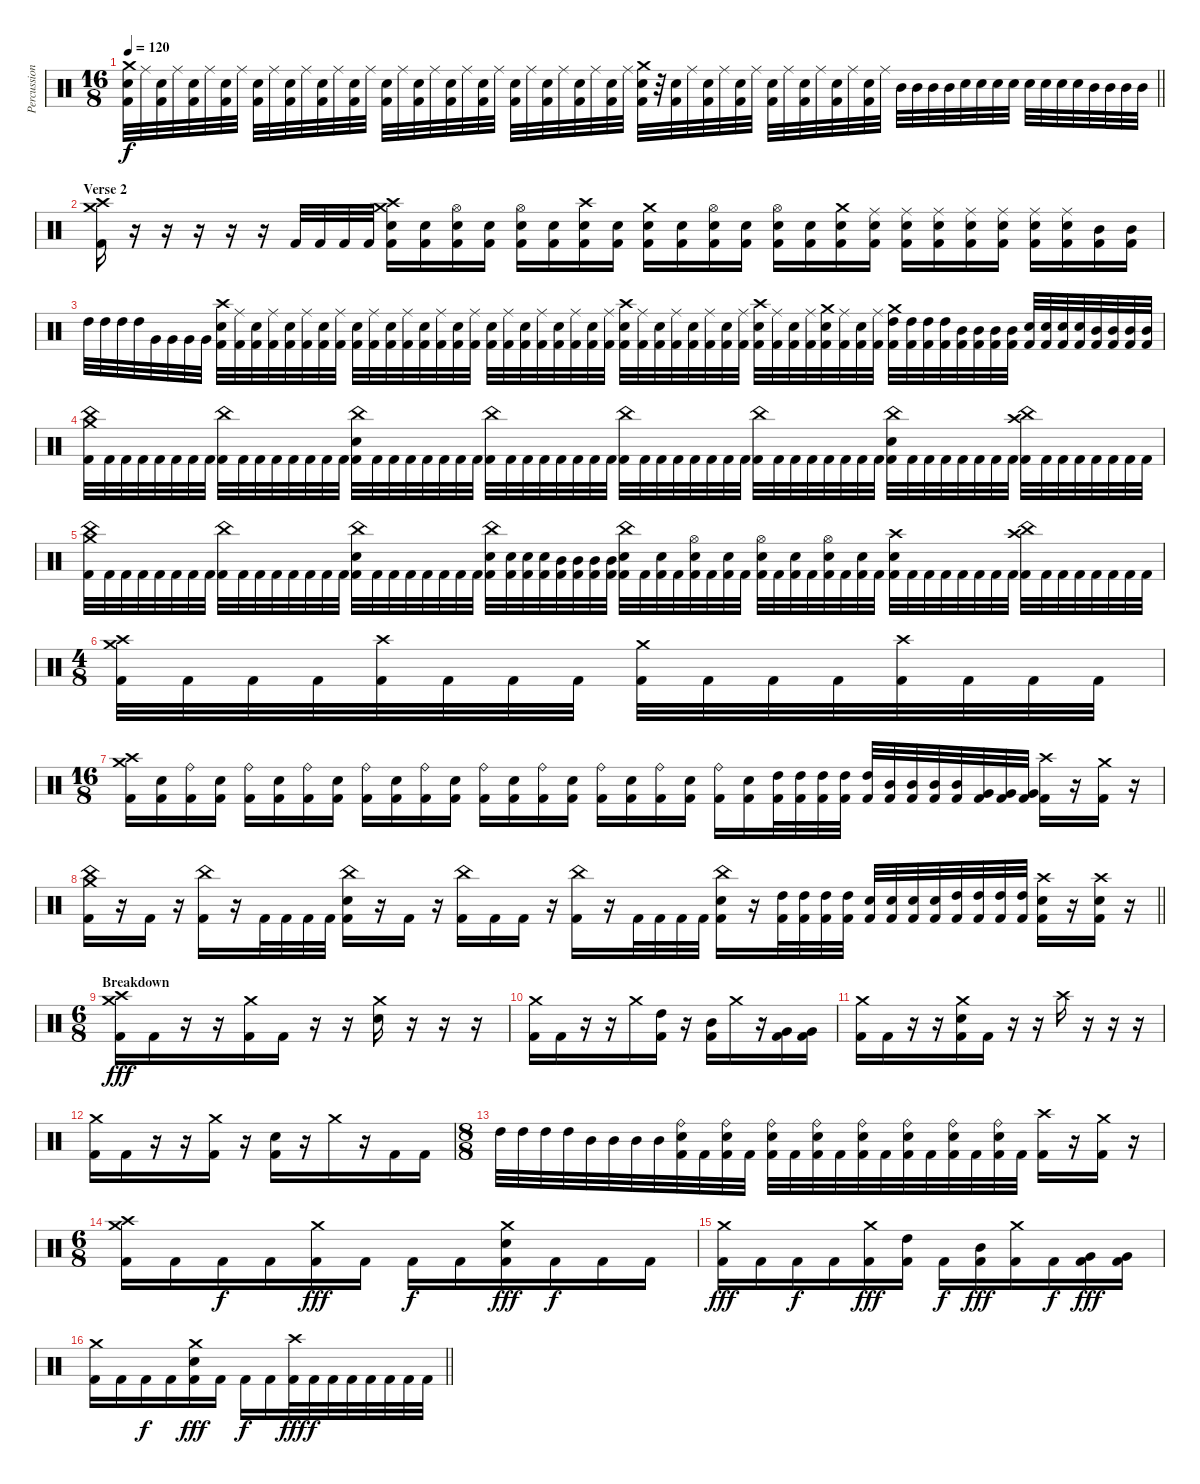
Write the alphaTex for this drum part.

\track ("Percussion" "Percussion") {instrument percussion}
\staff {score}
\articulation defaults
\ts (16 8)
\tempo 120
\clef neutral
\barLineRight lightlight
\ks c
("Crash medium (hit)" "Snare (hit) 2" "Kick (hit) 2").32{dy f} "Ride (middle)".32 ("Snare (hit) 2" "Kick (hit) 2").32 "Ride (middle)".32 ("Snare (hit) 2" "Kick (hit) 2").32 "Ride (middle)".32 ("Snare (hit) 2" "Kick (hit) 2").32 "Ride (middle)".32 ("Snare (hit) 2" "Kick (hit) 2").32 "Ride (middle)".32 ("Snare (hit) 2" "Kick (hit) 2").32 "Ride (middle)".32 ("Snare (hit) 2" "Kick (hit) 2").32 "Ride (middle)".32 ("Snare (hit) 2" "Kick (hit) 2").32 "Ride (middle)".32 ("Snare (hit) 2" "Kick (hit) 2").32 "Ride (middle)".32 ("Snare (hit) 2" "Kick (hit) 2").32 "Ride (middle)".32 ("Snare (hit) 2" "Kick (hit) 2").32 "Ride (middle)".32 ("Snare (hit) 2" "Kick (hit) 2").32 "Ride (middle)".32 ("Snare (hit) 2" "Kick (hit) 2").32 "Ride (middle)".32 ("Snare (hit) 2" "Kick (hit) 2").32 "Ride (middle)".32 ("Snare (hit) 2" "Kick (hit) 2").32 "Ride (middle)".32 ("Snare (hit) 2" "Kick (hit) 2").32 "Ride (middle)".32 ("Crash medium (hit)" "Snare (hit) 2" "Kick (hit) 2").32 r.32 ("Snare (hit) 2" "Kick (hit) 2").32 "Ride (middle)".32 ("Snare (hit) 2" "Kick (hit) 2").32 "Ride (middle)".32 ("Snare (hit) 2" "Kick (hit) 2").32 "Ride (middle)".32 ("Snare (hit) 2" "Kick (hit) 2").32 "Ride (middle)".32 ("Snare (hit) 2" "Kick (hit) 2").32 "Ride (middle)".32 ("Snare (hit) 2" "Kick (hit) 2").32 "Ride (middle)".32 ("Snare (hit) 2" "Kick (hit) 2").32 "Ride (middle)".32 "Mid Tom (hit)".32 "Mid Tom (hit)".32 "Mid Tom (hit)".32 "Mid Tom (hit)".32 "Snare (hit) 2".32 "Snare (hit) 2".32 "Snare (hit) 2".32 "Snare (hit) 2".32 "Snare (hit) 2".32 "Snare (hit) 2".32 "Snare (hit) 2".32 "Snare (hit) 2".32 "Mid Tom (hit)".32 "Mid Tom (hit)".32 "Mid Tom (hit)".32 "Mid Tom (hit)".32 |
\section ("" "Verse 2")
("Crash high (hit)" "Crash medium (hit)" "Kick (hit) 2").16 r.16 r.16 r.16 r.16 r.16 "Kick (hit) 2".32 "Kick (hit) 2".32 "Kick (hit) 2".32 "Kick (hit) 2".32 ("Crash medium (hit)" "Crash high (hit)" "Snare (hit) 2" "Kick (hit) 2").16 ("Snare (hit) 2" "Kick (hit) 2").16 ("Hi-Hat (open)" "Snare (hit) 2" "Kick (hit) 2").16 ("Snare (hit) 2" "Kick (hit) 2").16 ("Hi-Hat (open)" "Snare (hit) 2" "Kick (hit) 2").16 ("Snare (hit) 2" "Kick (hit) 2").16 ("Crash high (hit)" "Snare (hit) 2" "Kick (hit) 2").16 ("Snare (hit) 2" "Kick (hit) 2").16 ("Crash medium (hit)" "Snare (hit) 2" "Kick (hit) 2").16 ("Snare (hit) 2" "Kick (hit) 2").16 ("Hi-Hat (open)" "Snare (hit) 2" "Kick (hit) 2").16 ("Snare (hit) 2" "Kick (hit) 2").16 ("Hi-Hat (open)" "Snare (hit) 2" "Kick (hit) 2").16 ("Snare (hit) 2" "Kick (hit) 2").16 ("Crash medium (hit)" "Snare (hit) 2" "Kick (hit) 2").16 ("Ride (middle)" "Snare (hit) 2" "Kick (hit) 2").16 ("Ride (middle)" "Snare (hit) 2" "Kick (hit) 2").16 ("Ride (middle)" "Snare (hit) 2" "Kick (hit) 2").16 ("Ride (middle)" "Snare (hit) 2" "Kick (hit) 2").16 ("Ride (middle)" "Snare (hit) 2" "Kick (hit) 2").16 ("Ride (middle)" "Snare (hit) 2" "Kick (hit) 2").16 ("Ride (middle)" "Snare (hit) 2" "Kick (hit) 2").16 ("Mid Tom (hit)" "Kick (hit) 2").16 ("Mid Tom (hit)" "Kick (hit) 2").16 |
"High Tom (hit)".32 "High Tom (hit)".32 "High Tom (hit)".32 "High Tom (hit)".32 "Very Low Tom (hit)".32 "Very Low Tom (hit)".32 "Very Low Tom (hit)".32 "Very Low Tom (hit)".32 ("Crash high (hit)" "Snare (hit) 2" "Kick (hit) 2").32 ("Ride (middle)" "Kick (hit) 2").32 ("Snare (hit) 2" "Kick (hit) 2").32 ("Ride (middle)" "Kick (hit) 2").32 ("Snare (hit) 2" "Kick (hit) 2").32 ("Ride (middle)" "Kick (hit) 2").32 ("Snare (hit) 2" "Kick (hit) 2").32 ("Ride (middle)" "Kick (hit) 2").32 ("Snare (hit) 2" "Kick (hit) 2").32 ("Ride (middle)" "Kick (hit) 2").32 ("Snare (hit) 2" "Kick (hit) 2").32 ("Ride (middle)" "Kick (hit) 2").32 ("Snare (hit) 2" "Kick (hit) 2").32 ("Ride (middle)" "Kick (hit) 2").32 ("Snare (hit) 2" "Kick (hit) 2").32 ("Ride (middle)" "Kick (hit) 2").32 ("Snare (hit) 2" "Kick (hit) 2").32 ("Ride (middle)" "Kick (hit) 2").32 ("Snare (hit) 2" "Kick (hit) 2").32 ("Ride (middle)" "Kick (hit) 2").32 ("Snare (hit) 2" "Kick (hit) 2").32 ("Ride (middle)" "Kick (hit) 2").32 ("Snare (hit) 2" "Kick (hit) 2").32 ("Ride (middle)" "Kick (hit) 2").32 ("Crash high (hit)" "Snare (hit) 2" "Kick (hit) 2").32 ("Ride (middle)" "Kick (hit) 2").32 ("Snare (hit) 2" "Kick (hit) 2").32 ("Ride (middle)" "Kick (hit) 2").32 ("Snare (hit) 2" "Kick (hit) 2").32 ("Ride (middle)" "Kick (hit) 2").32 ("Snare (hit) 2" "Kick (hit) 2").32 ("Ride (middle)" "Kick (hit) 2").32 ("Crash high (hit)" "Snare (hit) 2" "Kick (hit) 2").32 ("Ride (middle)" "Kick (hit) 2").32 ("Snare (hit) 2" "Kick (hit) 2").32 ("Ride (middle)" "Kick (hit) 2").32 ("Crash medium (hit)" "Snare (hit) 2" "Kick (hit) 2").32 ("Ride (middle)" "Kick (hit) 2").32 ("Snare (hit) 2" "Kick (hit) 2").32 ("Ride (middle)" "Kick (hit) 2").32 ("Crash medium (hit)" "High Tom (hit)" "Kick (hit) 2").32 ("High Tom (hit)" "Kick (hit) 2").32 ("High Tom (hit)" "Kick (hit) 2").32 ("High Tom (hit)" "Kick (hit) 2").32 ("Mid Tom (hit)" "Kick (hit) 2").32 ("Mid Tom (hit)" "Kick (hit) 2").32 ("Mid Tom (hit)" "Kick (hit) 2").32 ("Mid Tom (hit)" "Kick (hit) 2").32 ("Snare (hit) 2" "Kick (hit) 2").32 ("Snare (hit) 2" "Kick (hit) 2").32 ("Snare (hit) 2" "Kick (hit) 2").32 ("Snare (hit) 2" "Kick (hit) 2").32 ("Mid Tom (hit)" "Kick (hit) 2").32 ("Mid Tom (hit)" "Kick (hit) 2").32 ("Mid Tom (hit)" "Kick (hit) 2").32 ("Mid Tom (hit)" "Kick (hit) 2").32 |
("Crash medium (hit)" "China (hit)" "Kick (hit) 2").32 "Kick (hit) 2".32 "Kick (hit) 2".32 "Kick (hit) 2".32 "Kick (hit) 2".32 "Kick (hit) 2".32 "Kick (hit) 2".32 "Kick (hit) 2".32 ("China (hit)" "Kick (hit) 2").32 "Kick (hit) 2".32 "Kick (hit) 2".32 "Kick (hit) 2".32 "Kick (hit) 2".32 "Kick (hit) 2".32 "Kick (hit) 2".32 "Kick (hit) 2".32 ("China (hit)" "Snare (hit) 2" "Kick (hit) 2").32 "Kick (hit) 2".32 "Kick (hit) 2".32 "Kick (hit) 2".32 "Kick (hit) 2".32 "Kick (hit) 2".32 "Kick (hit) 2".32 "Kick (hit) 2".32 ("China (hit)" "Kick (hit) 2").32 "Kick (hit) 2".32 "Kick (hit) 2".32 "Kick (hit) 2".32 "Kick (hit) 2".32 "Kick (hit) 2".32 "Kick (hit) 2".32 "Kick (hit) 2".32 ("China (hit)" "Kick (hit) 2").32 "Kick (hit) 2".32 "Kick (hit) 2".32 "Kick (hit) 2".32 "Kick (hit) 2".32 "Kick (hit) 2".32 "Kick (hit) 2".32 "Kick (hit) 2".32 ("China (hit)" "Kick (hit) 2").32 "Kick (hit) 2".32 "Kick (hit) 2".32 "Kick (hit) 2".32 "Kick (hit) 2".32 "Kick (hit) 2".32 "Kick (hit) 2".32 "Kick (hit) 2".32 ("China (hit)" "Snare (hit) 2" "Kick (hit) 2").32 "Kick (hit) 2".32 "Kick (hit) 2".32 "Kick (hit) 2".32 "Kick (hit) 2".32 "Kick (hit) 2".32 "Kick (hit) 2".32 "Kick (hit) 2".32 ("Crash high (hit)" "China (hit)" "Kick (hit) 2").32 "Kick (hit) 2".32 "Kick (hit) 2".32 "Kick (hit) 2".32 "Kick (hit) 2".32 "Kick (hit) 2".32 "Kick (hit) 2".32 "Kick (hit) 2".32 |
("Crash medium (hit)" "China (hit)" "Kick (hit) 2").32 "Kick (hit) 2".32 "Kick (hit) 2".32 "Kick (hit) 2".32 "Kick (hit) 2".32 "Kick (hit) 2".32 "Kick (hit) 2".32 "Kick (hit) 2".32 ("China (hit)" "Kick (hit) 2").32 "Kick (hit) 2".32 "Kick (hit) 2".32 "Kick (hit) 2".32 "Kick (hit) 2".32 "Kick (hit) 2".32 "Kick (hit) 2".32 "Kick (hit) 2".32 ("China (hit)" "Snare (hit) 2" "Kick (hit) 2").32 "Kick (hit) 2".32 "Kick (hit) 2".32 "Kick (hit) 2".32 "Kick (hit) 2".32 "Kick (hit) 2".32 "Kick (hit) 2".32 "Kick (hit) 2".32 ("China (hit)" "Snare (hit) 2" "Kick (hit) 2").32 ("Snare (hit) 2" "Kick (hit) 2").32 ("Snare (hit) 2" "Kick (hit) 2").32 ("Snare (hit) 2" "Kick (hit) 2").32 ("Mid Tom (hit)" "Kick (hit) 2").32 ("Mid Tom (hit)" "Kick (hit) 2").32 ("Mid Tom (hit)" "Kick (hit) 2").32 ("Mid Tom (hit)" "Kick (hit) 2").32 ("China (hit)" "Snare (hit) 2" "Kick (hit) 2").32 "Kick (hit) 2".32 ("Snare (hit) 2" "Kick (hit) 2").32 "Kick (hit) 2".32 ("Hi-Hat (open)" "Snare (hit) 2" "Kick (hit) 2").32 "Kick (hit) 2".32 ("Snare (hit) 2" "Kick (hit) 2").32 "Kick (hit) 2".32 ("Hi-Hat (open)" "Snare (hit) 2" "Kick (hit) 2").32 "Kick (hit) 2".32 ("Snare (hit) 2" "Kick (hit) 2").32 "Kick (hit) 2".32 ("Hi-Hat (open)" "Snare (hit) 2" "Kick (hit) 2").32 "Kick (hit) 2".32 ("Snare (hit) 2" "Kick (hit) 2").32 "Kick (hit) 2".32 ("Crash high (hit)" "Snare (hit) 2" "Kick (hit) 2").32 "Kick (hit) 2".32 "Kick (hit) 2".32 "Kick (hit) 2".32 "Kick (hit) 2".32 "Kick (hit) 2".32 "Kick (hit) 2".32 "Kick (hit) 2".32 ("Crash high (hit)" "China (hit)" "Kick (hit) 2").32 "Kick (hit) 2".32 "Kick (hit) 2".32 "Kick (hit) 2".32 "Kick (hit) 2".32 "Kick (hit) 2".32 "Kick (hit) 2".32 "Kick (hit) 2".32 |
\ts (4 8)
("Crash high (hit)" "Crash medium (hit)" "Kick (hit) 2").32 "Kick (hit) 2".32 "Kick (hit) 2".32 "Kick (hit) 2".32 ("Crash high (hit)" "Kick (hit) 2").32 "Kick (hit) 2".32 "Kick (hit) 2".32 "Kick (hit) 2".32 ("Crash medium (hit)" "Kick (hit) 2").32 "Kick (hit) 2".32 "Kick (hit) 2".32 "Kick (hit) 2".32 ("Crash high (hit)" "Kick (hit) 2").32 "Kick (hit) 2".32 "Kick (hit) 2".32 "Kick (hit) 2".32 |
\ts (16 8)
("Crash medium (hit)" "Crash high (hit)" "Kick (hit) 2").16 ("Snare (hit) 2" "Kick (hit) 2").16 ("Ride (bell)" "Kick (hit) 2").16 ("Snare (hit) 2" "Kick (hit) 2").16 ("Ride (bell)" "Kick (hit) 2").16 ("Snare (hit) 2" "Kick (hit) 2").16 ("Ride (bell)" "Kick (hit) 2").16 ("Snare (hit) 2" "Kick (hit) 2").16 ("Ride (bell)" "Kick (hit) 2").16 ("Snare (hit) 2" "Kick (hit) 2").16 ("Ride (bell)" "Kick (hit) 2").16 ("Snare (hit) 2" "Kick (hit) 2").16 ("Ride (bell)" "Kick (hit) 2").16 ("Snare (hit) 2" "Kick (hit) 2").16 ("Ride (bell)" "Kick (hit) 2").16 ("Snare (hit) 2" "Kick (hit) 2").16 ("Ride (bell)" "Kick (hit) 2").16 ("Snare (hit) 2" "Kick (hit) 2").16 ("Ride (bell)" "Kick (hit) 2").16 ("Snare (hit) 2" "Kick (hit) 2").16 ("Ride (bell)" "Kick (hit) 2").16 ("Snare (hit) 2" "Kick (hit) 2").16 ("High Tom (hit)" "Kick (hit) 2").32 ("High Tom (hit)" "Kick (hit) 2").32 ("High Tom (hit)" "Kick (hit) 2").32 ("High Tom (hit)" "Kick (hit) 2").32 ("High Tom (hit)" "Kick (hit) 2").32 ("Mid Tom (hit)" "Kick (hit) 2").32 ("Mid Tom (hit)" "Kick (hit) 2").32 ("Mid Tom (hit)" "Kick (hit) 2").32 ("Mid Tom (hit)" "Kick (hit) 2").32 ("Very Low Tom (hit)" "Kick (hit) 2").32 ("Very Low Tom (hit)" "Kick (hit) 2").32 ("Very Low Tom (hit)" "Kick (hit) 2").32 ("Crash high (hit)" "Kick (hit) 2").16 r.16 ("Crash medium (hit)" "Kick (hit) 2").16 r.16 |
\barLineRight lightlight
("Crash medium (hit)" "China (hit)" "Kick (hit) 2").16 r.16 "Kick (hit) 2".16 r.16 ("China (hit)" "Kick (hit) 2").16 r.16 "Kick (hit) 2".32 "Kick (hit) 2".32 "Kick (hit) 2".32 "Kick (hit) 2".32 ("China (hit)" "Snare (hit) 2" "Kick (hit) 2").16 r.16 "Kick (hit) 2".16 r.16 ("China (hit)" "Kick (hit) 2").16 "Kick (hit) 2".16 "Kick (hit) 2".16 r.16 ("China (hit)" "Kick (hit) 2").16 r.16 "Kick (hit) 2".32 "Kick (hit) 2".32 "Kick (hit) 2".32 "Kick (hit) 2".32 ("China (hit)" "Snare (hit) 2" "Kick (hit) 2").16 r.16 ("High Tom (hit)" "Kick (hit) 2").32 ("High Tom (hit)" "Kick (hit) 2").32 ("High Tom (hit)" "Kick (hit) 2").32 ("High Tom (hit)" "Kick (hit) 2").32 ("Snare (hit) 2" "Kick (hit) 2").32 ("Snare (hit) 2" "Kick (hit) 2").32 ("Snare (hit) 2" "Kick (hit) 2").32 ("Snare (hit) 2" "Kick (hit) 2").32 ("High Tom (hit)" "Kick (hit) 2").32 ("High Tom (hit)" "Kick (hit) 2").32 ("High Tom (hit)" "Kick (hit) 2").32 ("High Tom (hit)" "Kick (hit) 2").32 ("Crash high (hit)" "Snare (hit) 2" "Kick (hit) 2").16 r.16 ("Crash high (hit)" "Snare (hit) 2" "Kick (hit) 2").16 r.16 |
\ts (6 8)
\section ("" "Breakdown")
("Crash medium (hit)" "Crash high (hit)" "Kick (hit) 2").16{dy fff} "Kick (hit) 2".16 r.16 r.16 ("Crash medium (hit)" "Kick (hit) 2").16 "Kick (hit) 2".16 r.16 r.16 ("Crash medium (hit)" "Snare (hit) 2").16 r.16 r.16 r.16 |
("Crash medium (hit)" "Kick (hit) 2").16 "Kick (hit) 2".16 r.16 r.16 "Crash medium (hit)".16 ("High Tom (hit)" "Kick (hit) 2").16 r.16 ("Mid Tom (hit)" "Kick (hit) 2").16 "Crash medium (hit)".16 r.16 ("Very Low Tom (hit)" "Kick (hit) 2").16 ("Very Low Tom (hit)" "Kick (hit) 2").16 |
("Crash medium (hit)" "Kick (hit) 2").16 "Kick (hit) 2".16 r.16 r.16 ("Crash medium (hit)" "Snare (hit) 2" "Kick (hit) 2").16 "Kick (hit) 2".16 r.16 r.16 "Crash high (hit)".16 r.16 r.16 r.16 |
("Crash medium (hit)" "Kick (hit) 2").16 "Kick (hit) 2".16 r.16 r.16 ("Crash medium (hit)" "Kick (hit) 2").16 r.16 ("Snare (hit) 2" "Kick (hit) 2").16 r.16 "Crash medium (hit)".16 r.16 "Kick (hit) 2".16 "Kick (hit) 2".16 |
\ts (8 8)
"High Tom (hit)".32 "High Tom (hit)".32 "High Tom (hit)".32 "High Tom (hit)".32 "Mid Tom (hit)".32 "Mid Tom (hit)".32 "Mid Tom (hit)".32 "Mid Tom (hit)".32 ("Ride (bell)" "Snare (hit) 2" "Kick (hit) 2").32 "Kick (hit) 2".32 ("Ride (bell)" "Snare (hit) 2" "Kick (hit) 2").32 "Kick (hit) 2".32 ("Ride (bell)" "Snare (hit) 2" "Kick (hit) 2").32 "Kick (hit) 2".32 ("Ride (bell)" "Snare (hit) 2" "Kick (hit) 2").32 "Kick (hit) 2".32 ("Ride (bell)" "Snare (hit) 2" "Kick (hit) 2").32 "Kick (hit) 2".32 ("Ride (bell)" "Snare (hit) 2" "Kick (hit) 2").32 "Kick (hit) 2".32 ("Ride (bell)" "Snare (hit) 2" "Kick (hit) 2").32 "Kick (hit) 2".32 ("Ride (bell)" "Snare (hit) 2" "Kick (hit) 2").32 "Kick (hit) 2".32 ("Crash high (hit)" "Kick (hit) 2").16 r.16 ("Crash medium (hit)" "Kick (hit) 2").16 r.16 |
\ts (6 8)
("Crash medium (hit)" "Crash high (hit)" "Kick (hit) 2").16 "Kick (hit) 2".16 "Kick (hit) 2".16{dy f} "Kick (hit) 2".16 ("Crash medium (hit)" "Kick (hit) 2").16{dy fff} "Kick (hit) 2".16 "Kick (hit) 2".16{dy f} "Kick (hit) 2".16 ("Crash medium (hit)" "Snare (hit) 2" "Kick (hit) 2").16{dy fff} "Kick (hit) 2".16{dy f} "Kick (hit) 2".16 "Kick (hit) 2".16 |
("Crash medium (hit)" "Kick (hit) 2").16{dy fff} "Kick (hit) 2".16 "Kick (hit) 2".16{dy f} "Kick (hit) 2".16 ("Crash medium (hit)" "Kick (hit) 2").16{dy fff} ("High Tom (hit)" "Kick (hit) 2").16 "Kick (hit) 2".16{dy f} ("Mid Tom (hit)" "Kick (hit) 2").16{dy fff} ("Crash medium (hit)" "Kick (hit) 2").16 "Kick (hit) 2".16{dy f} ("Very Low Tom (hit)" "Kick (hit) 2").16{dy fff} ("Very Low Tom (hit)" "Kick (hit) 2").16 |
\barLineRight lightlight
("Crash medium (hit)" "Kick (hit) 2").16 "Kick (hit) 2".16 "Kick (hit) 2".16{dy f} "Kick (hit) 2".16 ("Crash medium (hit)" "Snare (hit) 2" "Kick (hit) 2").16{dy fff} "Kick (hit) 2".16 "Kick (hit) 2".16{dy f} "Kick (hit) 2".16 ("Crash high (hit)" "Kick (hit) 2").32{dy fff} "Kick (hit) 2".32{dy f} "Kick (hit) 2".32 "Kick (hit) 2".32 "Kick (hit) 2".32 "Kick (hit) 2".32 "Kick (hit) 2".32 "Kick (hit) 2".32
